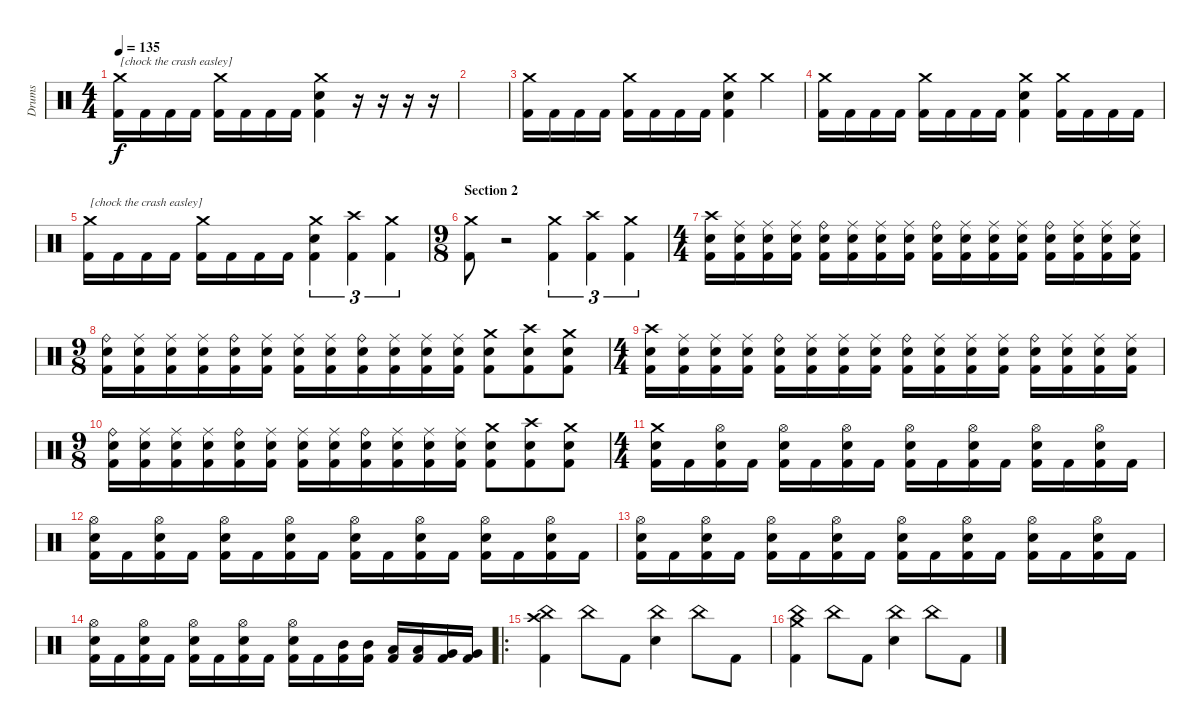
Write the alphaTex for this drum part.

\track ("Drums" "Drums") {instrument percussion}
\staff {score}
\articulation defaults
\ts (4 4)
\tempo 135
\clef neutral
\ks c
("Crash medium (hit)" "Kick (hit) 2").16{txt "[chock the crash easley]" dy f} "Kick (hit) 2".16 "Kick (hit) 2".16 "Kick (hit) 2".16 ("Crash medium (hit)" "Kick (hit) 2").16 "Kick (hit) 2".16 "Kick (hit) 2".16 "Kick (hit) 2".16 ("Crash medium (hit)" "Electric Snare (hit)" "Kick (hit) 2").4 r.16 r.16 r.16 r.16 |
|
("Crash medium (hit)" "Kick (hit) 2").16 "Kick (hit) 2".16 "Kick (hit) 2".16 "Kick (hit) 2".16 ("Crash medium (hit)" "Kick (hit) 2").16 "Kick (hit) 2".16 "Kick (hit) 2".16 "Kick (hit) 2".16 ("Crash medium (hit)" "Electric Snare (hit)" "Kick (hit) 2").4 "Crash medium (hit)".4 |
("Crash medium (hit)" "Kick (hit) 2").16 "Kick (hit) 2".16 "Kick (hit) 2".16 "Kick (hit) 2".16 ("Crash medium (hit)" "Kick (hit) 2").16 "Kick (hit) 2".16 "Kick (hit) 2".16 "Kick (hit) 2".16 ("Crash medium (hit)" "Electric Snare (hit)" "Kick (hit) 2").4 ("Crash medium (hit)" "Kick (hit) 2").16 "Kick (hit) 2".16 "Kick (hit) 2".16 "Kick (hit) 2".16 |
("Crash medium (hit)" "Kick (hit) 2").16{txt "[chock the crash easley]"} "Kick (hit) 2".16 "Kick (hit) 2".16 "Kick (hit) 2".16 ("Crash medium (hit)" "Kick (hit) 2").16 "Kick (hit) 2".16 "Kick (hit) 2".16 "Kick (hit) 2".16 ("Crash medium (hit)" "Electric Snare (hit)" "Kick (hit) 2").4{tu (3 2)} ("Crash high (hit)" "Kick (hit) 2").4{tu (3 2)} ("Crash medium (hit)" "Kick (hit) 2").4{tu (3 2)} |
\ts (9 8)
\section ("" "Section 2")
("Crash medium (hit)" "Kick (hit) 2").8 r.2 ("Crash medium (hit)" "Kick (hit) 2").4{tu (3 2)} ("Crash high (hit)" "Kick (hit) 2").4{tu (3 2)} ("Crash medium (hit)" "Kick (hit) 2").4{tu (3 2)} |
\ts (4 4)
("Crash high (hit)" "Electric Snare (hit)" "Kick (hit) 2").16 ("Ride (middle)" "Electric Snare (hit)" "Kick (hit) 2").16 ("Ride (middle)" "Electric Snare (hit)" "Kick (hit) 2").16 ("Ride (middle)" "Electric Snare (hit)" "Kick (hit) 2").16 ("Ride (bell)" "Electric Snare (hit)" "Kick (hit) 2").16 ("Ride (middle)" "Electric Snare (hit)" "Kick (hit) 2").16 ("Ride (middle)" "Electric Snare (hit)" "Kick (hit) 2").16 ("Ride (middle)" "Electric Snare (hit)" "Kick (hit) 2").16 ("Ride (bell)" "Electric Snare (hit)" "Kick (hit) 2").16 ("Ride (middle)" "Electric Snare (hit)" "Kick (hit) 2").16 ("Ride (middle)" "Electric Snare (hit)" "Kick (hit) 2").16 ("Ride (middle)" "Electric Snare (hit)" "Kick (hit) 2").16 ("Ride (bell)" "Electric Snare (hit)" "Kick (hit) 2").16 ("Ride (middle)" "Electric Snare (hit)" "Kick (hit) 2").16 ("Ride (middle)" "Electric Snare (hit)" "Kick (hit) 2").16 ("Ride (middle)" "Electric Snare (hit)" "Kick (hit) 2").16 |
\ts (9 8)
("Ride (bell)" "Electric Snare (hit)" "Kick (hit) 2").16 ("Ride (middle)" "Electric Snare (hit)" "Kick (hit) 2").16 ("Ride (middle)" "Electric Snare (hit)" "Kick (hit) 2").16 ("Ride (middle)" "Electric Snare (hit)" "Kick (hit) 2").16 ("Ride (bell)" "Electric Snare (hit)" "Kick (hit) 2").16 ("Ride (middle)" "Electric Snare (hit)" "Kick (hit) 2").16 ("Ride (middle)" "Electric Snare (hit)" "Kick (hit) 2").16 ("Ride (middle)" "Electric Snare (hit)" "Kick (hit) 2").16 ("Ride (bell)" "Electric Snare (hit)" "Kick (hit) 2").16 ("Ride (middle)" "Electric Snare (hit)" "Kick (hit) 2").16 ("Ride (middle)" "Electric Snare (hit)" "Kick (hit) 2").16 ("Ride (middle)" "Electric Snare (hit)" "Kick (hit) 2").16 ("Crash medium (hit)" "Electric Snare (hit)" "Kick (hit) 2").8 ("Crash high (hit)" "Electric Snare (hit)" "Kick (hit) 2").8 ("Crash medium (hit)" "Electric Snare (hit)" "Kick (hit) 2").8 |
\ts (4 4)
("Crash high (hit)" "Electric Snare (hit)" "Kick (hit) 2").16 ("Ride (middle)" "Electric Snare (hit)" "Kick (hit) 2").16 ("Ride (middle)" "Electric Snare (hit)" "Kick (hit) 2").16 ("Ride (middle)" "Electric Snare (hit)" "Kick (hit) 2").16 ("Ride (bell)" "Electric Snare (hit)" "Kick (hit) 2").16 ("Ride (middle)" "Electric Snare (hit)" "Kick (hit) 2").16 ("Ride (middle)" "Electric Snare (hit)" "Kick (hit) 2").16 ("Ride (middle)" "Electric Snare (hit)" "Kick (hit) 2").16 ("Ride (bell)" "Electric Snare (hit)" "Kick (hit) 2").16 ("Ride (middle)" "Electric Snare (hit)" "Kick (hit) 2").16 ("Ride (middle)" "Electric Snare (hit)" "Kick (hit) 2").16 ("Ride (middle)" "Electric Snare (hit)" "Kick (hit) 2").16 ("Ride (bell)" "Electric Snare (hit)" "Kick (hit) 2").16 ("Ride (middle)" "Electric Snare (hit)" "Kick (hit) 2").16 ("Ride (middle)" "Electric Snare (hit)" "Kick (hit) 2").16 ("Ride (middle)" "Electric Snare (hit)" "Kick (hit) 2").16 |
\ts (9 8)
("Ride (bell)" "Electric Snare (hit)" "Kick (hit) 2").16 ("Ride (middle)" "Electric Snare (hit)" "Kick (hit) 2").16 ("Ride (middle)" "Electric Snare (hit)" "Kick (hit) 2").16 ("Ride (middle)" "Electric Snare (hit)" "Kick (hit) 2").16 ("Ride (bell)" "Electric Snare (hit)" "Kick (hit) 2").16 ("Ride (middle)" "Electric Snare (hit)" "Kick (hit) 2").16 ("Ride (middle)" "Electric Snare (hit)" "Kick (hit) 2").16 ("Ride (middle)" "Electric Snare (hit)" "Kick (hit) 2").16 ("Ride (bell)" "Electric Snare (hit)" "Kick (hit) 2").16 ("Ride (middle)" "Electric Snare (hit)" "Kick (hit) 2").16 ("Ride (middle)" "Electric Snare (hit)" "Kick (hit) 2").16 ("Ride (middle)" "Electric Snare (hit)" "Kick (hit) 2").16 ("Crash medium (hit)" "Electric Snare (hit)" "Kick (hit) 2").8 ("Crash high (hit)" "Electric Snare (hit)" "Kick (hit) 2").8 ("Crash medium (hit)" "Electric Snare (hit)" "Kick (hit) 2").8 |
\ts (4 4)
("Crash medium (hit)" "Electric Snare (hit)" "Kick (hit) 2").16 "Kick (hit) 2".16 ("Hi-Hat (open)" "Electric Snare (hit)" "Kick (hit) 2").16 "Kick (hit) 2".16 ("Hi-Hat (open)" "Electric Snare (hit)" "Kick (hit) 2").16 "Kick (hit) 2".16 ("Hi-Hat (open)" "Electric Snare (hit)" "Kick (hit) 2").16 "Kick (hit) 2".16 ("Hi-Hat (open)" "Electric Snare (hit)" "Kick (hit) 2").16 "Kick (hit) 2".16 ("Hi-Hat (open)" "Electric Snare (hit)" "Kick (hit) 2").16 "Kick (hit) 2".16 ("Hi-Hat (open)" "Electric Snare (hit)" "Kick (hit) 2").16 "Kick (hit) 2".16 ("Hi-Hat (open)" "Electric Snare (hit)" "Kick (hit) 2").16 "Kick (hit) 2".16 |
("Hi-Hat (open)" "Electric Snare (hit)" "Kick (hit) 2").16 "Kick (hit) 2".16 ("Hi-Hat (open)" "Electric Snare (hit)" "Kick (hit) 2").16 "Kick (hit) 2".16 ("Hi-Hat (open)" "Electric Snare (hit)" "Kick (hit) 2").16 "Kick (hit) 2".16 ("Hi-Hat (open)" "Electric Snare (hit)" "Kick (hit) 2").16 "Kick (hit) 2".16 ("Hi-Hat (open)" "Electric Snare (hit)" "Kick (hit) 2").16 "Kick (hit) 2".16 ("Hi-Hat (open)" "Electric Snare (hit)" "Kick (hit) 2").16 "Kick (hit) 2".16 ("Hi-Hat (open)" "Electric Snare (hit)" "Kick (hit) 2").16 "Kick (hit) 2".16 ("Hi-Hat (open)" "Electric Snare (hit)" "Kick (hit) 2").16 "Kick (hit) 2".16 |
("Hi-Hat (open)" "Electric Snare (hit)" "Kick (hit) 2").16 "Kick (hit) 2".16 ("Hi-Hat (open)" "Electric Snare (hit)" "Kick (hit) 2").16 "Kick (hit) 2".16 ("Hi-Hat (open)" "Electric Snare (hit)" "Kick (hit) 2").16 "Kick (hit) 2".16 ("Hi-Hat (open)" "Electric Snare (hit)" "Kick (hit) 2").16 "Kick (hit) 2".16 ("Hi-Hat (open)" "Electric Snare (hit)" "Kick (hit) 2").16 "Kick (hit) 2".16 ("Hi-Hat (open)" "Electric Snare (hit)" "Kick (hit) 2").16 "Kick (hit) 2".16 ("Hi-Hat (open)" "Electric Snare (hit)" "Kick (hit) 2").16 "Kick (hit) 2".16 ("Hi-Hat (open)" "Electric Snare (hit)" "Kick (hit) 2").16 "Kick (hit) 2".16 |
("Hi-Hat (open)" "Electric Snare (hit)" "Kick (hit) 2").16 "Kick (hit) 2".16 ("Hi-Hat (open)" "Electric Snare (hit)" "Kick (hit) 2").16 "Kick (hit) 2".16 ("Hi-Hat (open)" "Electric Snare (hit)" "Kick (hit) 2").16 "Kick (hit) 2".16 ("Hi-Hat (open)" "Electric Snare (hit)" "Kick (hit) 2").16 "Kick (hit) 2".16 ("Hi-Hat (open)" "Electric Snare (hit)" "Kick (hit) 2").16 "Kick (hit) 2".16 ("Mid Tom (hit)" "Kick (hit) 2").16 ("Mid Tom (hit)" "Kick (hit) 2").16 ("Low Tom (hit)" "Kick (hit) 2").16 ("Low Tom (hit)" "Kick (hit) 2").16 ("Very Low Tom (hit)" "Kick (hit) 2").16 ("Very Low Tom (hit)" "Kick (hit) 2").16 |
\ro
("Crash high (hit)" "China (hit)" "Kick (hit) 2").4 "China (hit)".8 "Kick (hit) 2".8 ("China (hit)" "Electric Snare (hit)").4 "China (hit)".8 "Kick (hit) 2".8 |
("Crash medium (hit)" "China (hit)" "Kick (hit) 2").4 "China (hit)".8 "Kick (hit) 2".8 ("China (hit)" "Electric Snare (hit)").4 "China (hit)".8 "Kick (hit) 2".8
